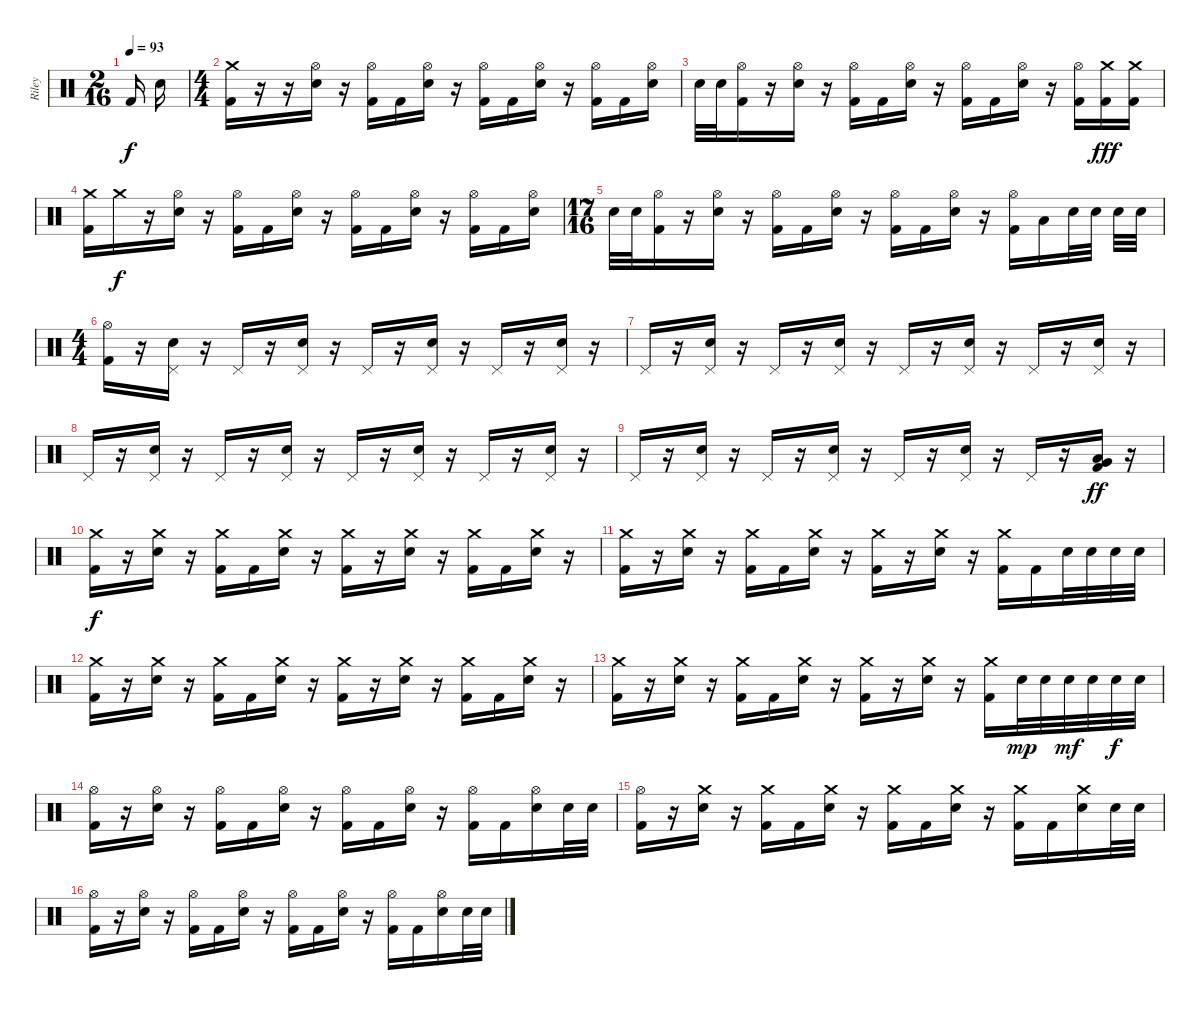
\track ("Riley" "Riley") {instrument percussion}
\staff {score}
\articulation defaults
\ts (2 16)
\tempo 93
\clef neutral
\ks c "Kick (hit) 2".16{dy f} "Electric Snare (hit)".16
|
\ts (4 4)
("Crash medium (hit)" "Kick (hit) 2").16 r.16 r.16 ("Hi-Hat (open)" "Electric Snare (hit)").16 r.16 ("Hi-Hat (open)" "Kick (hit) 2").16 "Kick (hit) 2".16 ("Hi-Hat (open)" "Electric Snare (hit)").16 r.16 ("Hi-Hat (open)" "Kick (hit) 2").16 "Kick (hit) 2".16 ("Hi-Hat (open)" "Electric Snare (hit)").16 r.16 ("Hi-Hat (open)" "Kick (hit) 2").16 "Kick (hit) 2".16 ("Hi-Hat (open)" "Electric Snare (hit)").16 |
"Electric Snare (hit)".32 "Electric Snare (hit)".32 ("Hi-Hat (open)" "Kick (hit) 2").16 r.16 ("Hi-Hat (open)" "Electric Snare (hit)").16 r.16 ("Hi-Hat (open)" "Kick (hit) 2").16 "Kick (hit) 2".16 ("Hi-Hat (open)" "Electric Snare (hit)").16 r.16 ("Hi-Hat (open)" "Kick (hit) 2").16 "Kick (hit) 2".16 ("Hi-Hat (open)" "Electric Snare (hit)").16 r.16 ("Hi-Hat (open)" "Kick (hit) 2").16 ("Crash medium (hit)" "Kick (hit) 2").16{dy fff} ("Crash medium (hit)" "Kick (hit) 2").16 |
("Crash medium (hit)" "Kick (hit) 2").16 "Crash medium (hit)".16{dy f} r.16 ("Hi-Hat (open)" "Electric Snare (hit)").16 r.16 ("Hi-Hat (open)" "Kick (hit) 2").16 "Kick (hit) 2".16 ("Hi-Hat (open)" "Electric Snare (hit)").16 r.16 ("Hi-Hat (open)" "Kick (hit) 2").16 "Kick (hit) 2".16 ("Hi-Hat (open)" "Electric Snare (hit)").16 r.16 ("Hi-Hat (open)" "Kick (hit) 2").16 "Kick (hit) 2".16 ("Hi-Hat (open)" "Electric Snare (hit)").16 |
\ts (17 16)
"Electric Snare (hit)".32 "Electric Snare (hit)".32 ("Hi-Hat (open)" "Kick (hit) 2").16 r.16 ("Hi-Hat (open)" "Electric Snare (hit)").16 r.16 ("Hi-Hat (open)" "Kick (hit) 2").16 "Kick (hit) 2".16 ("Hi-Hat (open)" "Electric Snare (hit)").16 r.16 ("Hi-Hat (open)" "Kick (hit) 2").16 "Kick (hit) 2".16 ("Hi-Hat (open)" "Electric Snare (hit)").16 r.16 ("Hi-Hat (open)" "Kick (hit) 2").16 "Low Tom (hit)".16 "Electric Snare (hit)".32 "Electric Snare (hit)".32 "Electric Snare (hit)".32 "Electric Snare (hit)".32 |
\ts (4 4)
("Hi-Hat (open)" "Kick (hit) 2").16 r.16 ("Pedal Hi-Hat (hit)" "Electric Snare (hit)").16 r.16 "Pedal Hi-Hat (hit)".16 r.16 ("Pedal Hi-Hat (hit)" "Electric Snare (hit)").16 r.16 "Pedal Hi-Hat (hit)".16 r.16 ("Pedal Hi-Hat (hit)" "Electric Snare (hit)").16 r.16 "Pedal Hi-Hat (hit)".16 r.16 ("Pedal Hi-Hat (hit)" "Electric Snare (hit)").16 r.16 |
"Pedal Hi-Hat (hit)".16 r.16 ("Pedal Hi-Hat (hit)" "Electric Snare (hit)").16 r.16 "Pedal Hi-Hat (hit)".16 r.16 ("Pedal Hi-Hat (hit)" "Electric Snare (hit)").16 r.16 "Pedal Hi-Hat (hit)".16 r.16 ("Pedal Hi-Hat (hit)" "Electric Snare (hit)").16 r.16 "Pedal Hi-Hat (hit)".16 r.16 ("Pedal Hi-Hat (hit)" "Electric Snare (hit)").16 r.16 |
"Pedal Hi-Hat (hit)".16 r.16 ("Pedal Hi-Hat (hit)" "Electric Snare (hit)").16 r.16 "Pedal Hi-Hat (hit)".16 r.16 ("Pedal Hi-Hat (hit)" "Electric Snare (hit)").16 r.16 "Pedal Hi-Hat (hit)".16 r.16 ("Pedal Hi-Hat (hit)" "Electric Snare (hit)").16 r.16 "Pedal Hi-Hat (hit)".16 r.16 ("Pedal Hi-Hat (hit)" "Electric Snare (hit)").16 r.16 |
"Pedal Hi-Hat (hit)".16 r.16 ("Pedal Hi-Hat (hit)" "Electric Snare (hit)").16 r.16 "Pedal Hi-Hat (hit)".16 r.16 ("Pedal Hi-Hat (hit)" "Electric Snare (hit)").16 r.16 "Pedal Hi-Hat (hit)".16 r.16 ("Pedal Hi-Hat (hit)" "Electric Snare (hit)").16 r.16 "Pedal Hi-Hat (hit)".16 r.16 ("Very Low Tom (hit)" "Low Tom (hit)" "Kick (hit) 2").16{dy ff} r.16 |
("Crash medium (hit)" "Kick (hit) 2").16{dy f} r.16 ("Crash medium (hit)" "Electric Snare (hit)").16 r.16 ("Crash medium (hit)" "Kick (hit) 2").16 "Kick (hit) 2".16 ("Crash medium (hit)" "Electric Snare (hit)").16 r.16 ("Crash medium (hit)" "Kick (hit) 2").16 r.16 ("Crash medium (hit)" "Electric Snare (hit)").16 r.16 ("Crash medium (hit)" "Kick (hit) 2").16 "Kick (hit) 2".16 ("Crash medium (hit)" "Electric Snare (hit)").16 r.16 |
("Crash medium (hit)" "Kick (hit) 2").16 r.16 ("Crash medium (hit)" "Electric Snare (hit)").16 r.16 ("Crash medium (hit)" "Kick (hit) 2").16 "Kick (hit) 2".16 ("Crash medium (hit)" "Electric Snare (hit)").16 r.16 ("Crash medium (hit)" "Kick (hit) 2").16 r.16 ("Crash medium (hit)" "Electric Snare (hit)").16 r.16 ("Crash medium (hit)" "Kick (hit) 2").16 "Kick (hit) 2".16 "Electric Snare (hit)".32 "Electric Snare (hit)".32 "Electric Snare (hit)".32 "Electric Snare (hit)".32 |
("Crash medium (hit)" "Kick (hit) 2").16 r.16 ("Crash medium (hit)" "Electric Snare (hit)").16 r.16 ("Crash medium (hit)" "Kick (hit) 2").16 "Kick (hit) 2".16 ("Crash medium (hit)" "Electric Snare (hit)").16 r.16 ("Crash medium (hit)" "Kick (hit) 2").16 r.16 ("Crash medium (hit)" "Electric Snare (hit)").16 r.16 ("Crash medium (hit)" "Kick (hit) 2").16 "Kick (hit) 2".16 ("Crash medium (hit)" "Electric Snare (hit)").16 r.16 |
("Crash medium (hit)" "Kick (hit) 2").16 r.16 ("Crash medium (hit)" "Electric Snare (hit)").16 r.16 ("Crash medium (hit)" "Kick (hit) 2").16 "Kick (hit) 2".16 ("Crash medium (hit)" "Electric Snare (hit)").16 r.16 ("Crash medium (hit)" "Kick (hit) 2").16 r.16 ("Crash medium (hit)" "Electric Snare (hit)").16 r.16 ("Crash medium (hit)" "Kick (hit) 2").16 "Electric Snare (hit)".32{dy mp} "Electric Snare (hit)".32 "Electric Snare (hit)".32{dy mf} "Electric Snare (hit)".32 "Electric Snare (hit)".32{dy f} "Electric Snare (hit)".32 |
("Hi-Hat (open)" "Kick (hit) 2").16 r.16 ("Hi-Hat (open)" "Electric Snare (hit)").16 r.16 ("Hi-Hat (open)" "Kick (hit) 2").16 "Kick (hit) 2".16 ("Hi-Hat (open)" "Electric Snare (hit)").16 r.16 ("Hi-Hat (open)" "Kick (hit) 2").16 "Kick (hit) 2".16 ("Hi-Hat (open)" "Electric Snare (hit)").16 r.16 ("Hi-Hat (open)" "Kick (hit) 2").16 "Kick (hit) 2".16 ("Hi-Hat (open)" "Electric Snare (hit)").16 "Electric Snare (hit)".32 "Electric Snare (hit)".32 |
("Hi-Hat (open)" "Kick (hit) 2").16 r.16 ("Crash medium (hit)" "Electric Snare (hit)").16 r.16 ("Crash medium (hit)" "Kick (hit) 2").16 "Kick (hit) 2".16 ("Crash medium (hit)" "Electric Snare (hit)").16 r.16 ("Crash medium (hit)" "Kick (hit) 2").16 "Kick (hit) 2".16 ("Crash medium (hit)" "Electric Snare (hit)").16 r.16 ("Crash medium (hit)" "Kick (hit) 2").16 "Kick (hit) 2".16 ("Crash medium (hit)" "Electric Snare (hit)").16 "Electric Snare (hit)".32 "Electric Snare (hit)".32 |
("Hi-Hat (open)" "Kick (hit) 2").16 r.16 ("Hi-Hat (open)" "Electric Snare (hit)").16 r.16 ("Hi-Hat (open)" "Kick (hit) 2").16 "Kick (hit) 2".16 ("Hi-Hat (open)" "Electric Snare (hit)").16 r.16 ("Hi-Hat (open)" "Kick (hit) 2").16 "Kick (hit) 2".16 ("Hi-Hat (open)" "Electric Snare (hit)").16 r.16 ("Hi-Hat (open)" "Kick (hit) 2").16 "Kick (hit) 2".16 ("Hi-Hat (open)" "Electric Snare (hit)").16 "Electric Snare (hit)".32 "Electric Snare (hit)".32
